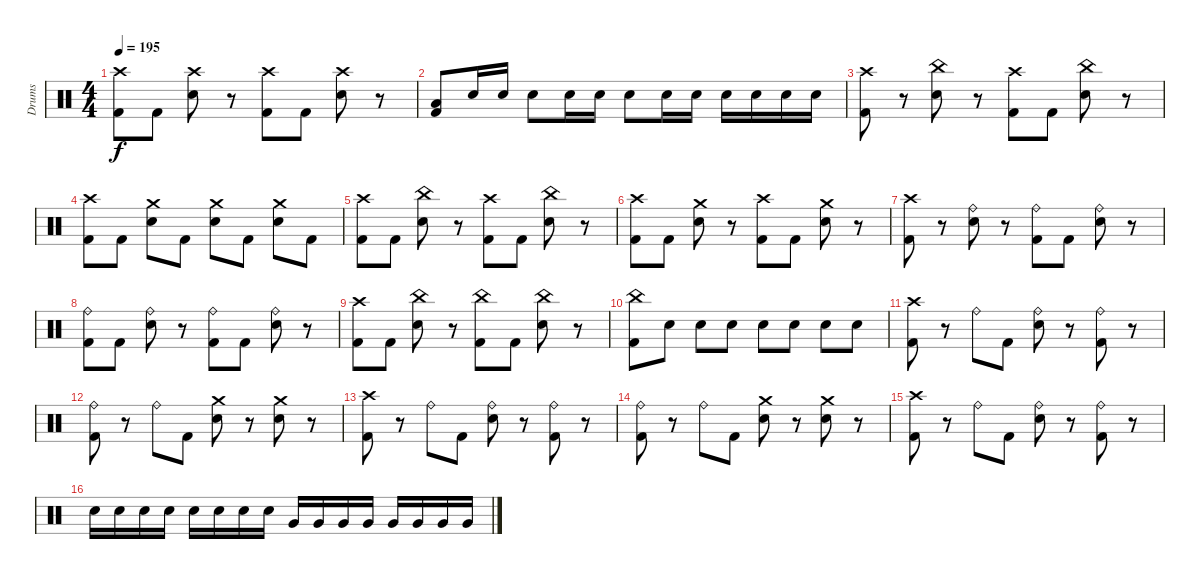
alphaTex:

\track ("Drums" "Drums") {instrument percussion}
\staff {score}
\articulation defaults
\ts (4 4)
\tempo 195
\clef neutral
\ks c
("Crash high (hit)" "Kick (hit) 2").8{dy f} "Kick (hit) 2".8 ("Crash high (hit)" "Electric Snare (hit)").8 r.8 ("Crash high (hit)" "Kick (hit) 2").8 "Kick (hit) 2".8 ("Crash high (hit)" "Electric Snare (hit)").8 r.8 |
("Low Tom (hit)" "Kick (hit) 2").8 "Electric Snare (hit)".16 "Electric Snare (hit)".16 "Electric Snare (hit)".8 "Electric Snare (hit)".16 "Electric Snare (hit)".16 "Electric Snare (hit)".8 "Electric Snare (hit)".16 "Electric Snare (hit)".16 "Electric Snare (hit)".16 "Electric Snare (hit)".16 "Electric Snare (hit)".16 "Electric Snare (hit)".16 |
("Crash high (hit)" "Kick (hit) 2").8 r.8 ("China (hit)" "Electric Snare (hit)").8 r.8 ("Crash high (hit)" "Kick (hit) 2").8 "Kick (hit) 2".8 ("China (hit)" "Electric Snare (hit)").8 r.8 |
("Crash high (hit)" "Kick (hit) 2").8 "Kick (hit) 2".8 ("Crash medium (hit)" "Electric Snare (hit)").8 "Kick (hit) 2".8 ("Crash medium (hit)" "Electric Snare (hit)").8 "Kick (hit) 2".8 ("Crash medium (hit)" "Electric Snare (hit)").8 "Kick (hit) 2".8 |
("Crash high (hit)" "Kick (hit) 2").8 "Kick (hit) 2".8 ("China (hit)" "Electric Snare (hit)").8 r.8 ("Crash high (hit)" "Kick (hit) 2").8 "Kick (hit) 2".8 ("China (hit)" "Electric Snare (hit)").8 r.8 |
("Crash high (hit)" "Kick (hit) 2").8 "Kick (hit) 2".8 ("Crash medium (hit)" "Electric Snare (hit)").8 r.8 ("Crash high (hit)" "Kick (hit) 2").8 "Kick (hit) 2".8 ("Crash medium (hit)" "Electric Snare (hit)").8 r.8 |
("Crash high (hit)" "Kick (hit) 2").8 r.8 ("Ride (bell)" "Electric Snare (hit)").8 r.8 ("Ride (bell)" "Kick (hit) 2").8 "Kick (hit) 2".8 ("Ride (bell)" "Electric Snare (hit)").8 r.8 |
("Ride (bell)" "Kick (hit) 2").8 "Kick (hit) 2".8 ("Ride (bell)" "Electric Snare (hit)").8 r.8 ("Ride (bell)" "Kick (hit) 2").8 "Kick (hit) 2".8 ("Ride (bell)" "Electric Snare (hit)").8 r.8 |
("Crash high (hit)" "Kick (hit) 2").8 "Kick (hit) 2".8 ("China (hit)" "Electric Snare (hit)").8 r.8 ("China (hit)" "Kick (hit) 2").8 "Kick (hit) 2".8 ("China (hit)" "Electric Snare (hit)").8 r.8 |
("China (hit)" "Kick (hit) 2").8 "Electric Snare (hit)".8 "Electric Snare (hit)".8 "Electric Snare (hit)".8 "Electric Snare (hit)".8 "Electric Snare (hit)".8 "Electric Snare (hit)".8 "Electric Snare (hit)".8 |
("Crash high (hit)" "Kick (hit) 2").8 r.8 "Ride (bell)".8 "Kick (hit) 2".8 ("Ride (bell)" "Electric Snare (hit)").8 r.8 ("Ride (bell)" "Kick (hit) 2").8 r.8 |
("Ride (bell)" "Kick (hit) 2").8 r.8 "Ride (bell)".8 "Kick (hit) 2".8 ("Crash medium (hit)" "Electric Snare (hit)").8 r.8 ("Crash medium (hit)" "Electric Snare (hit)").8 r.8 |
("Crash high (hit)" "Kick (hit) 2").8 r.8 "Ride (bell)".8 "Kick (hit) 2".8 ("Ride (bell)" "Electric Snare (hit)").8 r.8 ("Ride (bell)" "Kick (hit) 2").8 r.8 |
("Ride (bell)" "Kick (hit) 2").8 r.8 "Ride (bell)".8 "Kick (hit) 2".8 ("Crash medium (hit)" "Electric Snare (hit)").8 r.8 ("Crash medium (hit)" "Electric Snare (hit)").8 r.8 |
("Crash high (hit)" "Kick (hit) 2").8 r.8 "Ride (bell)".8 "Kick (hit) 2".8 ("Ride (bell)" "Electric Snare (hit)").8 r.8 ("Ride (bell)" "Kick (hit) 2").8 r.8 |
"Electric Snare (hit)".16 "Electric Snare (hit)".16 "Electric Snare (hit)".16 "Electric Snare (hit)".16 "Electric Snare (hit)".16 "Electric Snare (hit)".16 "Electric Snare (hit)".16 "Electric Snare (hit)".16 "Very Low Tom (hit)".16 "Very Low Tom (hit)".16 "Very Low Tom (hit)".16 "Very Low Tom (hit)".16 "Very Low Tom (hit)".16 "Very Low Tom (hit)".16 "Very Low Tom (hit)".16 "Very Low Tom (hit)".16
